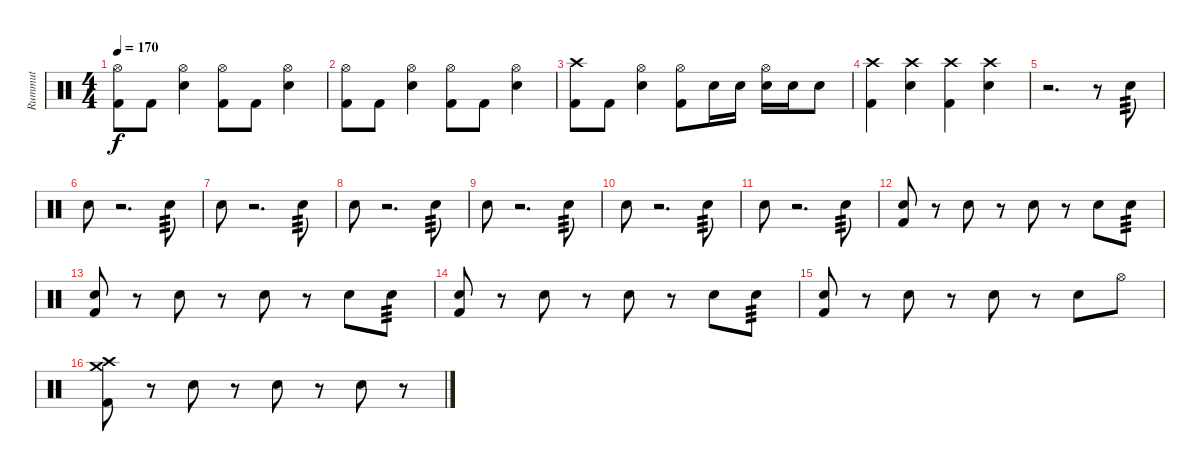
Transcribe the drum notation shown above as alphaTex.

\track ("Rummut" "Rummut") {instrument percussion}
\staff {score}
\articulation defaults
\ts (4 4)
\tempo 170
\clef neutral
\ks c
("Hi-Hat (open)" "Kick (hit) 2").8{dy f} "Kick (hit) 2".8 ("Hi-Hat (open)" "Electric Snare (hit)").4 ("Hi-Hat (open)" "Kick (hit) 2").8 "Kick (hit) 2".8 ("Hi-Hat (open)" "Electric Snare (hit)").4 |
("Hi-Hat (open)" "Kick (hit) 2").8 "Kick (hit) 2".8 ("Hi-Hat (open)" "Electric Snare (hit)").4 ("Hi-Hat (open)" "Kick (hit) 2").8 "Kick (hit) 2".8 ("Hi-Hat (open)" "Electric Snare (hit)").4 |
("Crash high (hit)" "Kick (hit) 2").8 "Kick (hit) 2".8 ("Hi-Hat (open)" "Electric Snare (hit)").4 ("Hi-Hat (open)" "Kick (hit) 2").8 "Electric Snare (hit)".16 "Electric Snare (hit)".16 ("Hi-Hat (open)" "Electric Snare (hit)").16 "Electric Snare (hit)".16 "Electric Snare (hit)".8 |
("Crash high (hit)" "Kick (hit) 2").4 ("Crash high (hit)" "Electric Snare (hit)").4 ("Crash high (hit)" "Kick (hit) 2").4 ("Crash high (hit)" "Electric Snare (hit)").4 |
r.2{d volume 13} r.8 "Electric Snare (hit)".8{tp 3} |
"Electric Snare (hit)".8 r.2{d} "Electric Snare (hit)".8{tp 3} |
"Electric Snare (hit)".8 r.2{d} "Electric Snare (hit)".8{tp 3} |
"Electric Snare (hit)".8 r.2{d} "Electric Snare (hit)".8{tp 3} |
"Electric Snare (hit)".8 r.2{d} "Electric Snare (hit)".8{tp 3} |
"Electric Snare (hit)".8 r.2{d} "Electric Snare (hit)".8{tp 3} |
"Electric Snare (hit)".8 r.2{d} "Electric Snare (hit)".8{tp 3} |
("Electric Snare (hit)" "Kick (hit) 2").8 r.8 "Electric Snare (hit)".8 r.8 "Electric Snare (hit)".8 r.8 "Electric Snare (hit)".8 "Electric Snare (hit)".8{tp 3} |
("Electric Snare (hit)" "Kick (hit) 2").8 r.8 "Electric Snare (hit)".8 r.8 "Electric Snare (hit)".8 r.8 "Electric Snare (hit)".8 "Electric Snare (hit)".8{tp 3} |
("Electric Snare (hit)" "Kick (hit) 2").8 r.8 "Electric Snare (hit)".8 r.8 "Electric Snare (hit)".8 r.8 "Electric Snare (hit)".8 "Electric Snare (hit)".8{tp 3} |
("Electric Snare (hit)" "Kick (hit) 2").8 r.8 "Electric Snare (hit)".8 r.8 "Electric Snare (hit)".8 r.8 "Electric Snare (hit)".8 "Hi-Hat (open)".8 |
("Crash high (hit)" "Crash medium (hit)" "Kick (hit) 2").8 r.8 "Electric Snare (hit)".8 r.8 "Electric Snare (hit)".8 r.8 "Electric Snare (hit)".8 r.8
